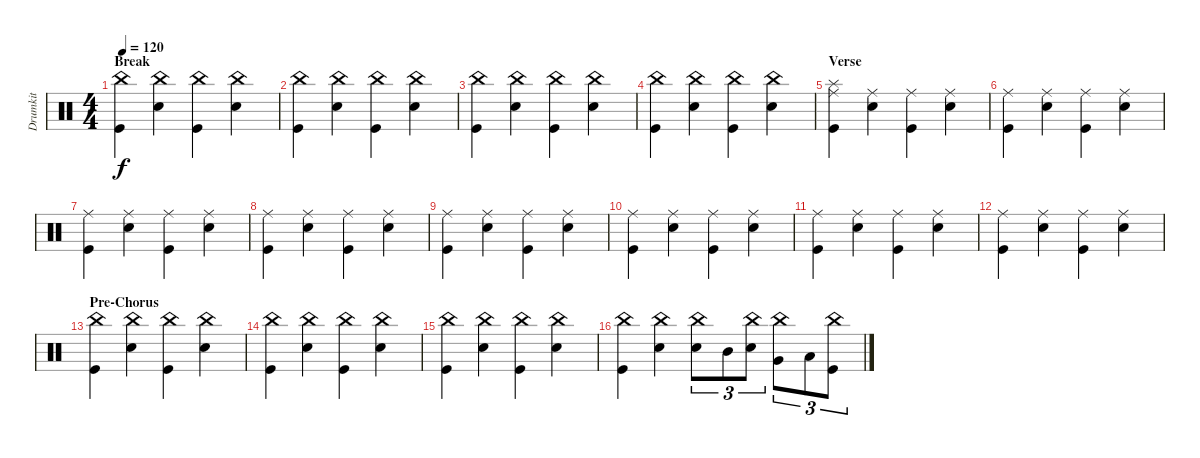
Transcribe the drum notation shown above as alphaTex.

\track ("Drumkit" "Drumkit") {instrument percussion}
\staff {score}
\articulation defaults
\ts (4 4)
\section ("" "Break")
\tempo 120
\clef neutral
\ks c
("Kick (hit)" "China (hit)").4{dy f} ("Snare (hit) 2" "China (hit)").4 ("Kick (hit)" "China (hit)").4 ("Snare (hit) 2" "China (hit)").4 |
("Kick (hit)" "China (hit)").4 ("Snare (hit) 2" "China (hit)").4 ("Kick (hit)" "China (hit)").4 ("Snare (hit) 2" "China (hit)").4 |
("Kick (hit)" "China (hit)").4 ("Snare (hit) 2" "China (hit)").4 ("Kick (hit)" "China (hit)").4 ("Snare (hit) 2" "China (hit)").4 |
("Kick (hit)" "China (hit)").4 ("Snare (hit) 2" "China (hit)").4 ("Kick (hit)" "China (hit)").4 ("Snare (hit) 2" "China (hit)").4 |
\section ("" "Verse")
("Kick (hit)" "Ride (middle)" "Splash (hit)").4 ("Snare (hit) 2" "Ride (middle)").4 ("Kick (hit)" "Ride (middle)").4 ("Snare (hit) 2" "Ride (middle)").4 |
("Kick (hit)" "Ride (middle)").4 ("Snare (hit) 2" "Ride (middle)").4 ("Kick (hit)" "Ride (middle)").4 ("Snare (hit) 2" "Ride (middle)").4 |
("Kick (hit)" "Ride (middle)").4 ("Snare (hit) 2" "Ride (middle)").4 ("Kick (hit)" "Ride (middle)").4 ("Snare (hit) 2" "Ride (middle)").4 |
("Kick (hit)" "Ride (middle)").4 ("Snare (hit) 2" "Ride (middle)").4 ("Kick (hit)" "Ride (middle)").4 ("Snare (hit) 2" "Ride (middle)").4 |
("Kick (hit)" "Ride (middle)").4 ("Snare (hit) 2" "Ride (middle)").4 ("Kick (hit)" "Ride (middle)").4 ("Snare (hit) 2" "Ride (middle)").4 |
("Kick (hit)" "Ride (middle)").4 ("Snare (hit) 2" "Ride (middle)").4 ("Kick (hit)" "Ride (middle)").4 ("Snare (hit) 2" "Ride (middle)").4 |
("Kick (hit)" "Ride (middle)").4 ("Snare (hit) 2" "Ride (middle)").4 ("Kick (hit)" "Ride (middle)").4 ("Snare (hit) 2" "Ride (middle)").4 |
("Kick (hit)" "Ride (middle)").4 ("Snare (hit) 2" "Ride (middle)").4 ("Kick (hit)" "Ride (middle)").4 ("Snare (hit) 2" "Ride (middle)").4 |
\section ("" "Pre-Chorus")
("Kick (hit)" "China (hit)").4 ("Snare (hit) 2" "China (hit)").4 ("Kick (hit)" "China (hit)").4 ("Snare (hit) 2" "China (hit)").4 |
("Kick (hit)" "China (hit)").4 ("Snare (hit) 2" "China (hit)").4 ("Kick (hit)" "China (hit)").4 ("Snare (hit) 2" "China (hit)").4 |
("Kick (hit)" "China (hit)").4 ("Snare (hit) 2" "China (hit)").4 ("Kick (hit)" "China (hit)").4 ("Snare (hit) 2" "China (hit)").4 |
("Kick (hit)" "China (hit)").4 ("Snare (hit) 2" "China (hit)").4 ("Snare (hit) 2" "China (hit)").8{tu (3 2)} "Mid Tom (hit)".8{tu (3 2)} ("Snare (hit) 2" "China (hit)").8{tu (3 2)} ("Very Low Tom (hit)" "China (hit)").8{tu (3 2)} "Low Floor Tom (hit)".8{tu (3 2)} ("Kick (hit)" "China (hit)").8{tu (3 2)}
